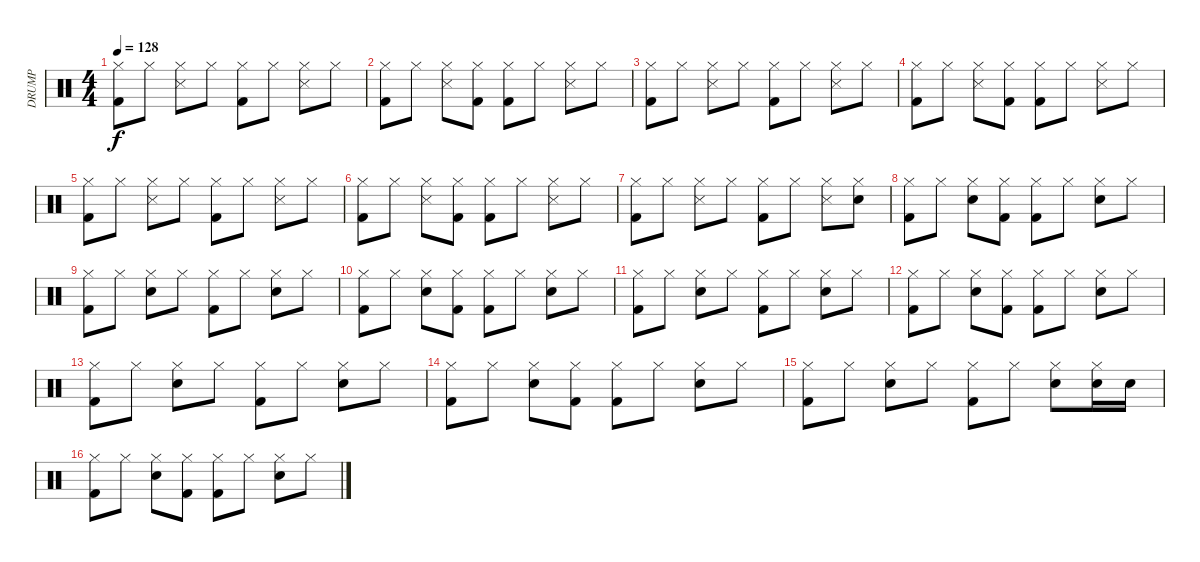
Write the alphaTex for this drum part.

\track ("DRUMP" "DRUMP") {instrument percussion}
\staff {score}
\articulation defaults
\ts (4 4)
\tempo 128
\clef neutral
\ks c
("Hi-Hat (closed)" "Kick (hit) 2").8{dy f} "Hi-Hat (closed)".8 ("Hi-Hat (closed)" "Snare (side stick) 3").8 "Hi-Hat (closed)".8 ("Hi-Hat (closed)" "Kick (hit) 2").8 "Hi-Hat (closed)".8 ("Hi-Hat (closed)" "Snare (side stick) 3").8 "Hi-Hat (closed)".8 |
("Hi-Hat (closed)" "Kick (hit) 2").8 "Hi-Hat (closed)".8 ("Hi-Hat (closed)" "Snare (side stick) 3").8 ("Hi-Hat (closed)" "Kick (hit) 2").8 ("Hi-Hat (closed)" "Kick (hit) 2").8 "Hi-Hat (closed)".8 ("Hi-Hat (closed)" "Snare (side stick) 3").8 "Hi-Hat (closed)".8 |
("Hi-Hat (closed)" "Kick (hit) 2").8 "Hi-Hat (closed)".8 ("Hi-Hat (closed)" "Snare (side stick) 3").8 "Hi-Hat (closed)".8 ("Hi-Hat (closed)" "Kick (hit) 2").8 "Hi-Hat (closed)".8 ("Hi-Hat (closed)" "Snare (side stick) 3").8 "Hi-Hat (closed)".8 |
("Hi-Hat (closed)" "Kick (hit) 2").8 "Hi-Hat (closed)".8 ("Hi-Hat (closed)" "Snare (side stick) 3").8 ("Hi-Hat (closed)" "Kick (hit) 2").8 ("Hi-Hat (closed)" "Kick (hit) 2").8 "Hi-Hat (closed)".8 ("Hi-Hat (closed)" "Snare (side stick) 3").8 "Hi-Hat (closed)".8 |
("Hi-Hat (closed)" "Kick (hit) 2").8 "Hi-Hat (closed)".8 ("Hi-Hat (closed)" "Snare (side stick) 3").8 "Hi-Hat (closed)".8 ("Hi-Hat (closed)" "Kick (hit) 2").8 "Hi-Hat (closed)".8 ("Hi-Hat (closed)" "Snare (side stick) 3").8 "Hi-Hat (closed)".8 |
("Hi-Hat (closed)" "Kick (hit) 2").8 "Hi-Hat (closed)".8 ("Hi-Hat (closed)" "Snare (side stick) 3").8 ("Hi-Hat (closed)" "Kick (hit) 2").8 ("Hi-Hat (closed)" "Kick (hit) 2").8 "Hi-Hat (closed)".8 ("Hi-Hat (closed)" "Snare (side stick) 3").8 "Hi-Hat (closed)".8 |
("Hi-Hat (closed)" "Kick (hit) 2").8 "Hi-Hat (closed)".8 ("Hi-Hat (closed)" "Snare (side stick) 3").8 "Hi-Hat (closed)".8 ("Hi-Hat (closed)" "Kick (hit) 2").8 "Hi-Hat (closed)".8 ("Hi-Hat (closed)" "Snare (side stick) 3").8 ("Hi-Hat (closed)" "Snare (hit) 2").8 |
("Hi-Hat (closed)" "Kick (hit) 2").8 "Hi-Hat (closed)".8 ("Hi-Hat (closed)" "Snare (hit) 2").8 ("Hi-Hat (closed)" "Kick (hit) 2").8 ("Hi-Hat (closed)" "Kick (hit) 2").8 "Hi-Hat (closed)".8 ("Hi-Hat (closed)" "Snare (hit) 2").8 "Hi-Hat (closed)".8 |
("Hi-Hat (closed)" "Kick (hit) 2").8 "Hi-Hat (closed)".8 ("Hi-Hat (closed)" "Snare (hit) 2").8 "Hi-Hat (closed)".8 ("Hi-Hat (closed)" "Kick (hit) 2").8 "Hi-Hat (closed)".8 ("Hi-Hat (closed)" "Snare (hit) 2").8 "Hi-Hat (closed)".8 |
("Hi-Hat (closed)" "Kick (hit) 2").8 "Hi-Hat (closed)".8 ("Hi-Hat (closed)" "Snare (hit) 2").8 ("Hi-Hat (closed)" "Kick (hit) 2").8 ("Hi-Hat (closed)" "Kick (hit) 2").8 "Hi-Hat (closed)".8 ("Hi-Hat (closed)" "Snare (hit) 2").8 "Hi-Hat (closed)".8 |
("Hi-Hat (closed)" "Kick (hit) 2").8 "Hi-Hat (closed)".8 ("Hi-Hat (closed)" "Snare (hit) 2").8 "Hi-Hat (closed)".8 ("Hi-Hat (closed)" "Kick (hit) 2").8 "Hi-Hat (closed)".8 ("Hi-Hat (closed)" "Snare (hit) 2").8 "Hi-Hat (closed)".8 |
("Hi-Hat (closed)" "Kick (hit) 2").8 "Hi-Hat (closed)".8 ("Hi-Hat (closed)" "Snare (hit) 2").8 ("Hi-Hat (closed)" "Kick (hit) 2").8 ("Hi-Hat (closed)" "Kick (hit) 2").8 "Hi-Hat (closed)".8 ("Hi-Hat (closed)" "Snare (hit) 2").8 "Hi-Hat (closed)".8 |
("Hi-Hat (closed)" "Kick (hit) 2").8 "Hi-Hat (closed)".8 ("Hi-Hat (closed)" "Snare (hit) 2").8 "Hi-Hat (closed)".8 ("Hi-Hat (closed)" "Kick (hit) 2").8 "Hi-Hat (closed)".8 ("Hi-Hat (closed)" "Snare (hit) 2").8 "Hi-Hat (closed)".8 |
("Hi-Hat (closed)" "Kick (hit) 2").8 "Hi-Hat (closed)".8 ("Hi-Hat (closed)" "Snare (hit) 2").8 ("Hi-Hat (closed)" "Kick (hit) 2").8 ("Hi-Hat (closed)" "Kick (hit) 2").8 "Hi-Hat (closed)".8 ("Hi-Hat (closed)" "Snare (hit) 2").8 "Hi-Hat (closed)".8 |
("Hi-Hat (closed)" "Kick (hit) 2").8 "Hi-Hat (closed)".8 ("Hi-Hat (closed)" "Snare (hit) 2").8 "Hi-Hat (closed)".8 ("Hi-Hat (closed)" "Kick (hit) 2").8 "Hi-Hat (closed)".8 ("Hi-Hat (closed)" "Snare (hit) 2").8 ("Hi-Hat (closed)" "Snare (hit) 2").16 "Snare (hit) 2".16 |
("Hi-Hat (closed)" "Kick (hit) 2").8 "Hi-Hat (closed)".8 ("Hi-Hat (closed)" "Snare (hit) 2").8 ("Hi-Hat (closed)" "Kick (hit) 2").8 ("Hi-Hat (closed)" "Kick (hit) 2").8 "Hi-Hat (closed)".8 ("Hi-Hat (closed)" "Snare (hit) 2").8 "Hi-Hat (closed)".8
